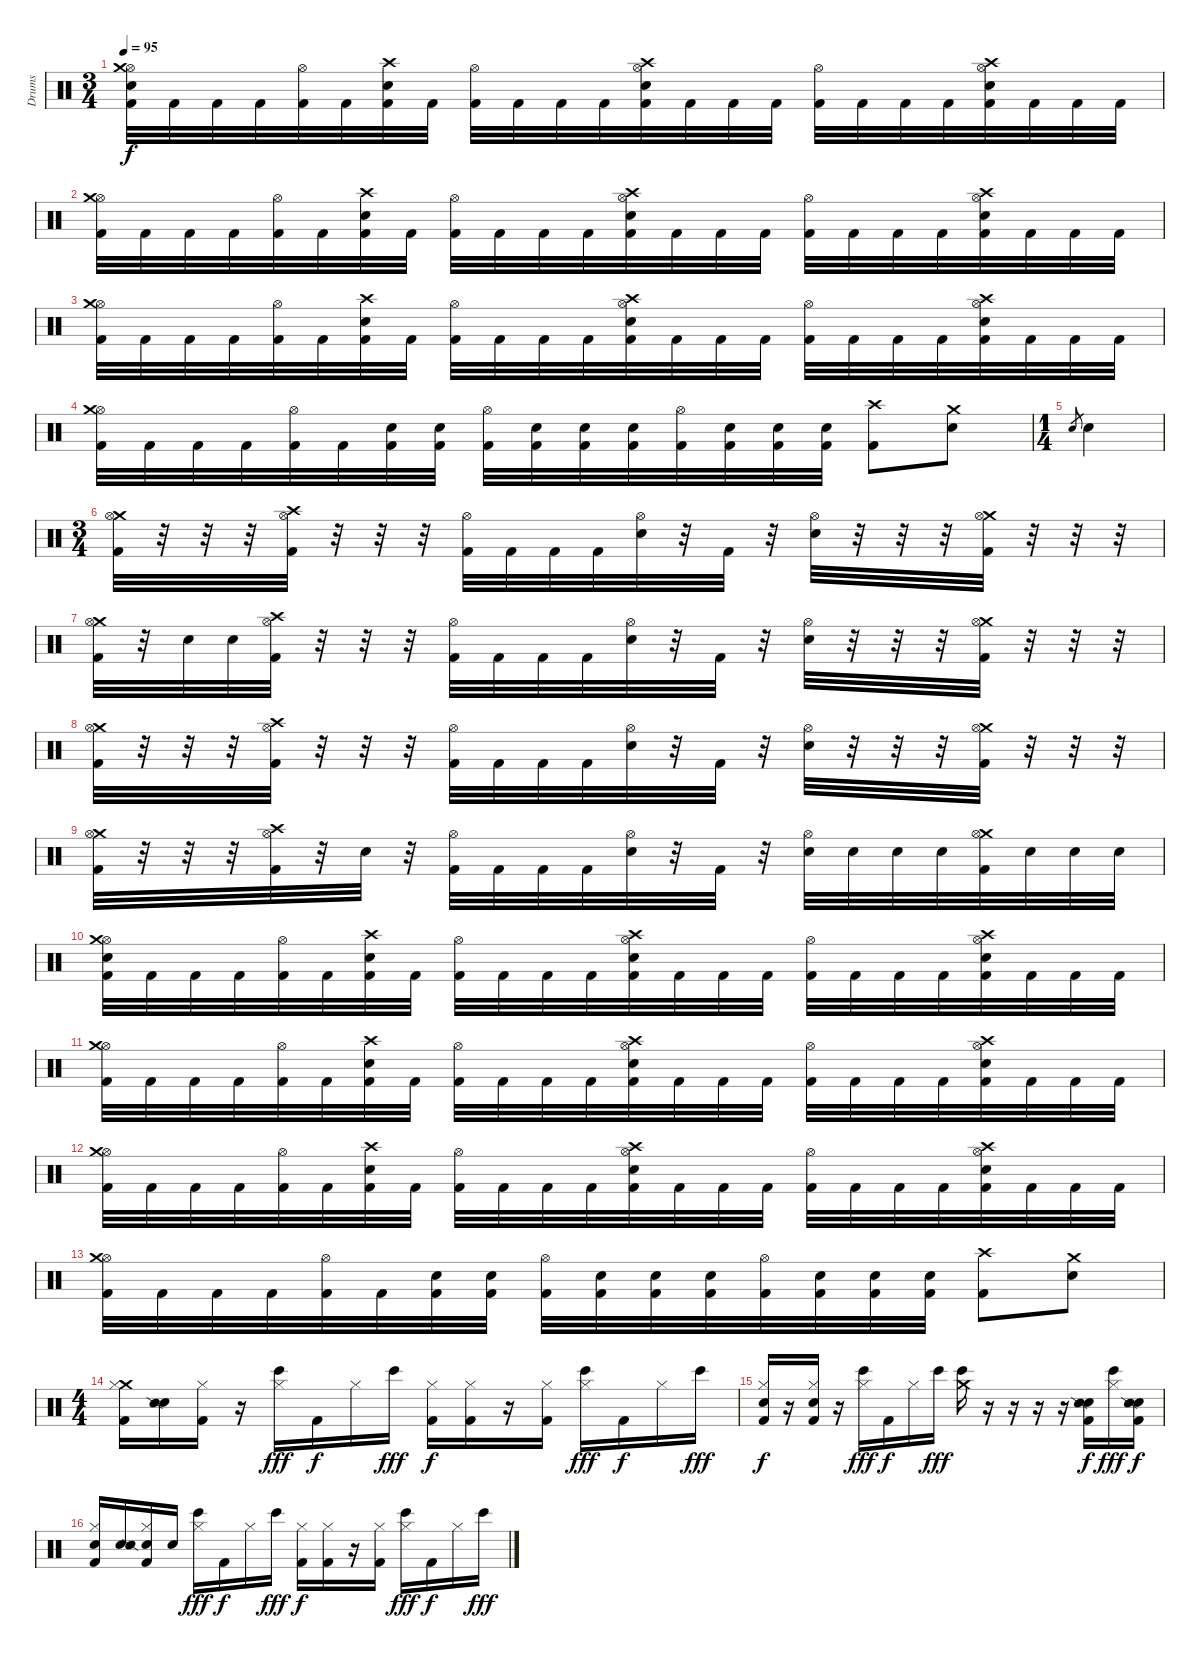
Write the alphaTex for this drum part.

\track ("Drums" "Drums") {instrument percussion}
\staff {score}
\articulation defaults
\ts (3 4)
\tempo 95
\clef neutral
\ks c
("Hi-Hat (open)" "Crash medium (hit)" "Electric Snare (hit)" "Kick (hit) 2").32{dy f} "Kick (hit) 2".32 "Kick (hit) 2".32 "Kick (hit) 2".32 ("Hi-Hat (open)" "Kick (hit) 2").32 "Kick (hit) 2".32 ("Crash high (hit)" "Electric Snare (hit)" "Kick (hit) 2").32 "Kick (hit) 2".32 ("Hi-Hat (open)" "Kick (hit) 2").32 "Kick (hit) 2".32 "Kick (hit) 2".32 "Kick (hit) 2".32 ("Hi-Hat (open)" "Electric Snare (hit)" "Crash high (hit)" "Kick (hit) 2").32 "Kick (hit) 2".32 "Kick (hit) 2".32 "Kick (hit) 2".32 ("Hi-Hat (open)" "Kick (hit) 2").32 "Kick (hit) 2".32 "Kick (hit) 2".32 "Kick (hit) 2".32 ("Hi-Hat (open)" "Crash high (hit)" "Electric Snare (hit)" "Kick (hit) 2").32 "Kick (hit) 2".32 "Kick (hit) 2".32 "Kick (hit) 2".32 |
("Hi-Hat (open)" "Crash medium (hit)" "Kick (hit) 2").32 "Kick (hit) 2".32 "Kick (hit) 2".32 "Kick (hit) 2".32 ("Hi-Hat (open)" "Kick (hit) 2").32 "Kick (hit) 2".32 ("Crash high (hit)" "Electric Snare (hit)" "Kick (hit) 2").32 "Kick (hit) 2".32 ("Hi-Hat (open)" "Kick (hit) 2").32 "Kick (hit) 2".32 "Kick (hit) 2".32 "Kick (hit) 2".32 ("Hi-Hat (open)" "Electric Snare (hit)" "Crash high (hit)" "Kick (hit) 2").32 "Kick (hit) 2".32 "Kick (hit) 2".32 "Kick (hit) 2".32 ("Hi-Hat (open)" "Kick (hit) 2").32 "Kick (hit) 2".32 "Kick (hit) 2".32 "Kick (hit) 2".32 ("Hi-Hat (open)" "Crash high (hit)" "Electric Snare (hit)" "Kick (hit) 2").32 "Kick (hit) 2".32 "Kick (hit) 2".32 "Kick (hit) 2".32 |
("Hi-Hat (open)" "Crash medium (hit)" "Kick (hit) 2").32 "Kick (hit) 2".32 "Kick (hit) 2".32 "Kick (hit) 2".32 ("Hi-Hat (open)" "Kick (hit) 2").32 "Kick (hit) 2".32 ("Crash high (hit)" "Electric Snare (hit)" "Kick (hit) 2").32 "Kick (hit) 2".32 ("Hi-Hat (open)" "Kick (hit) 2").32 "Kick (hit) 2".32 "Kick (hit) 2".32 "Kick (hit) 2".32 ("Hi-Hat (open)" "Electric Snare (hit)" "Crash high (hit)" "Kick (hit) 2").32 "Kick (hit) 2".32 "Kick (hit) 2".32 "Kick (hit) 2".32 ("Hi-Hat (open)" "Kick (hit) 2").32 "Kick (hit) 2".32 "Kick (hit) 2".32 "Kick (hit) 2".32 ("Hi-Hat (open)" "Crash high (hit)" "Electric Snare (hit)" "Kick (hit) 2").32 "Kick (hit) 2".32 "Kick (hit) 2".32 "Kick (hit) 2".32 |
("Hi-Hat (open)" "Crash medium (hit)" "Kick (hit) 2").32 "Kick (hit) 2".32 "Kick (hit) 2".32 "Kick (hit) 2".32 ("Hi-Hat (open)" "Kick (hit) 2").32 "Kick (hit) 2".32 ("Electric Snare (hit)" "Kick (hit) 2").32 ("Electric Snare (hit)" "Kick (hit) 2").32 ("Hi-Hat (open)" "Kick (hit) 2").32 ("Electric Snare (hit)" "Kick (hit) 2").32 ("Electric Snare (hit)" "Kick (hit) 2").32 ("Electric Snare (hit)" "Kick (hit) 2").32 ("Hi-Hat (open)" "Kick (hit) 2").32 ("Electric Snare (hit)" "Kick (hit) 2").32 ("Electric Snare (hit)" "Kick (hit) 2").32 ("Electric Snare (hit)" "Kick (hit) 2").32 ("Crash high (hit)" "Kick (hit) 2").8 ("Crash medium (hit)" "Electric Snare (hit)").8 |
\ts (1 4)
"Electric Snare (hit)".8{gr} "Electric Snare (hit)".4 |
\ts (3 4)
("Crash medium (hit)" "Hi-Hat (open)" "Kick (hit) 2").32 r.32 r.32 r.32 ("Crash high (hit)" "Hi-Hat (open)" "Kick (hit) 2").32 r.32 r.32 r.32 ("Hi-Hat (open)" "Kick (hit) 2").32 "Kick (hit) 2".32 "Kick (hit) 2".32 "Kick (hit) 2".32 ("Hi-Hat (open)" "Electric Snare (hit)").32 r.32 "Kick (hit) 2".32 r.32 ("Hi-Hat (open)" "Electric Snare (hit)").32 r.32 r.32 r.32 ("Crash medium (hit)" "Hi-Hat (open)" "Kick (hit) 2").32 r.32 r.32 r.32 |
("Crash medium (hit)" "Hi-Hat (open)" "Kick (hit) 2").32 r.32 "Electric Snare (hit)".32 "Electric Snare (hit)".32 ("Crash high (hit)" "Hi-Hat (open)" "Kick (hit) 2").32 r.32 r.32 r.32 ("Hi-Hat (open)" "Kick (hit) 2").32 "Kick (hit) 2".32 "Kick (hit) 2".32 "Kick (hit) 2".32 ("Hi-Hat (open)" "Electric Snare (hit)").32 r.32 "Kick (hit) 2".32 r.32 ("Hi-Hat (open)" "Electric Snare (hit)").32 r.32 r.32 r.32 ("Crash medium (hit)" "Hi-Hat (open)" "Kick (hit) 2").32 r.32 r.32 r.32 |
("Crash medium (hit)" "Hi-Hat (open)" "Kick (hit) 2").32 r.32 r.32 r.32 ("Crash high (hit)" "Hi-Hat (open)" "Kick (hit) 2").32 r.32 r.32 r.32 ("Hi-Hat (open)" "Kick (hit) 2").32 "Kick (hit) 2".32 "Kick (hit) 2".32 "Kick (hit) 2".32 ("Hi-Hat (open)" "Electric Snare (hit)").32 r.32 "Kick (hit) 2".32 r.32 ("Hi-Hat (open)" "Electric Snare (hit)").32 r.32 r.32 r.32 ("Crash medium (hit)" "Hi-Hat (open)" "Kick (hit) 2").32 r.32 r.32 r.32 |
("Crash medium (hit)" "Hi-Hat (open)" "Kick (hit) 2").32 r.32 r.32 r.32 ("Crash high (hit)" "Hi-Hat (open)" "Kick (hit) 2").32 r.32 "Electric Snare (hit)".32 r.32 ("Hi-Hat (open)" "Kick (hit) 2").32 "Kick (hit) 2".32 "Kick (hit) 2".32 "Kick (hit) 2".32 ("Hi-Hat (open)" "Electric Snare (hit)").32 r.32 "Kick (hit) 2".32 r.32 ("Hi-Hat (open)" "Electric Snare (hit)").32 "Electric Snare (hit)".32 "Electric Snare (hit)".32 "Electric Snare (hit)".32 ("Crash medium (hit)" "Hi-Hat (open)" "Kick (hit) 2").32 "Electric Snare (hit)".32 "Electric Snare (hit)".32 "Electric Snare (hit)".32 |
("Hi-Hat (open)" "Crash medium (hit)" "Electric Snare (hit)" "Kick (hit) 2").32 "Kick (hit) 2".32 "Kick (hit) 2".32 "Kick (hit) 2".32 ("Hi-Hat (open)" "Kick (hit) 2").32 "Kick (hit) 2".32 ("Crash high (hit)" "Electric Snare (hit)" "Kick (hit) 2").32 "Kick (hit) 2".32 ("Hi-Hat (open)" "Kick (hit) 2").32 "Kick (hit) 2".32 "Kick (hit) 2".32 "Kick (hit) 2".32 ("Hi-Hat (open)" "Electric Snare (hit)" "Crash high (hit)" "Kick (hit) 2").32 "Kick (hit) 2".32 "Kick (hit) 2".32 "Kick (hit) 2".32 ("Hi-Hat (open)" "Kick (hit) 2").32 "Kick (hit) 2".32 "Kick (hit) 2".32 "Kick (hit) 2".32 ("Hi-Hat (open)" "Crash high (hit)" "Electric Snare (hit)" "Kick (hit) 2").32 "Kick (hit) 2".32 "Kick (hit) 2".32 "Kick (hit) 2".32 |
("Hi-Hat (open)" "Crash medium (hit)" "Kick (hit) 2").32 "Kick (hit) 2".32 "Kick (hit) 2".32 "Kick (hit) 2".32 ("Hi-Hat (open)" "Kick (hit) 2").32 "Kick (hit) 2".32 ("Crash high (hit)" "Electric Snare (hit)" "Kick (hit) 2").32 "Kick (hit) 2".32 ("Hi-Hat (open)" "Kick (hit) 2").32 "Kick (hit) 2".32 "Kick (hit) 2".32 "Kick (hit) 2".32 ("Hi-Hat (open)" "Electric Snare (hit)" "Crash high (hit)" "Kick (hit) 2").32 "Kick (hit) 2".32 "Kick (hit) 2".32 "Kick (hit) 2".32 ("Hi-Hat (open)" "Kick (hit) 2").32 "Kick (hit) 2".32 "Kick (hit) 2".32 "Kick (hit) 2".32 ("Hi-Hat (open)" "Crash high (hit)" "Electric Snare (hit)" "Kick (hit) 2").32 "Kick (hit) 2".32 "Kick (hit) 2".32 "Kick (hit) 2".32 |
("Hi-Hat (open)" "Crash medium (hit)" "Kick (hit) 2").32 "Kick (hit) 2".32 "Kick (hit) 2".32 "Kick (hit) 2".32 ("Hi-Hat (open)" "Kick (hit) 2").32 "Kick (hit) 2".32 ("Crash high (hit)" "Electric Snare (hit)" "Kick (hit) 2").32 "Kick (hit) 2".32 ("Hi-Hat (open)" "Kick (hit) 2").32 "Kick (hit) 2".32 "Kick (hit) 2".32 "Kick (hit) 2".32 ("Hi-Hat (open)" "Electric Snare (hit)" "Crash high (hit)" "Kick (hit) 2").32 "Kick (hit) 2".32 "Kick (hit) 2".32 "Kick (hit) 2".32 ("Hi-Hat (open)" "Kick (hit) 2").32 "Kick (hit) 2".32 "Kick (hit) 2".32 "Kick (hit) 2".32 ("Hi-Hat (open)" "Crash high (hit)" "Electric Snare (hit)" "Kick (hit) 2").32 "Kick (hit) 2".32 "Kick (hit) 2".32 "Kick (hit) 2".32 |
("Hi-Hat (open)" "Crash medium (hit)" "Kick (hit) 2").32 "Kick (hit) 2".32 "Kick (hit) 2".32 "Kick (hit) 2".32 ("Hi-Hat (open)" "Kick (hit) 2").32 "Kick (hit) 2".32 ("Electric Snare (hit)" "Kick (hit) 2").32 ("Electric Snare (hit)" "Kick (hit) 2").32 ("Hi-Hat (open)" "Kick (hit) 2").32 ("Electric Snare (hit)" "Kick (hit) 2").32 ("Electric Snare (hit)" "Kick (hit) 2").32 ("Electric Snare (hit)" "Kick (hit) 2").32 ("Hi-Hat (open)" "Kick (hit) 2").32 ("Electric Snare (hit)" "Kick (hit) 2").32 ("Electric Snare (hit)" "Kick (hit) 2").32 ("Electric Snare (hit)" "Kick (hit) 2").32 ("Crash high (hit)" "Kick (hit) 2").8 ("Crash medium (hit)" "Electric Snare (hit)").8 |
\ts (4 4)
("Crash medium (hit)" "Hi-Hat (closed)" "Kick (hit) 2").16 ("Metronome (bell)" "Snare (side stick) 2").16 ("Hi-Hat (closed)" "Kick (hit) 2").16 r.16 ("Hi-Hat (closed)" "Bongo High (hit)").16{dy fff} "Kick (hit) 2".16{dy f} "Hi-Hat (closed)".16 "Bongo High (hit)".16{dy fff} ("Hi-Hat (closed)" "Kick (hit) 2").16{dy f} ("Hi-Hat (closed)" "Kick (hit) 2").16 r.16 ("Hi-Hat (closed)" "Kick (hit) 2").16 ("Hi-Hat (closed)" "Bongo High (hit)").16{dy fff} "Kick (hit) 2".16{dy f} "Hi-Hat (closed)".16 "Bongo High (hit)".16{dy fff} |
("Metronome (bell)" "Hi-Hat (closed)" "Kick (hit) 2").16{dy f} r.16 ("Metronome (bell)" "Hi-Hat (closed)" "Kick (hit) 2").16 r.16 ("Hi-Hat (closed)" "Bongo High (hit)").16{dy fff} "Kick (hit) 2".16{dy f} "Hi-Hat (closed)".16 "Bongo High (hit)".16{dy fff} ("Crash medium (hit)" "Bongo High (hit)").16 r.16 r.16 r.16 r.16 ("Metronome (bell)" "Snare (side stick) 2" "Kick (hit) 2").16{dy f} ("Hi-Hat (closed)" "Bongo High (hit)").16{dy fff} ("Metronome (bell)" "Snare (side stick) 2" "Kick (hit) 2").16{dy f} |
("Metronome (bell)" "Hi-Hat (closed)" "Kick (hit) 2").16 ("Metronome (bell)" "Snare (side stick) 2").16 ("Metronome (bell)" "Hi-Hat (closed)" "Kick (hit) 2").16 "Metronome (bell)".16 ("Hi-Hat (closed)" "Bongo High (hit)").16{dy fff} "Kick (hit) 2".16{dy f} "Hi-Hat (closed)".16 "Bongo High (hit)".16{dy fff} ("Hi-Hat (closed)" "Kick (hit) 2").16{dy f} ("Hi-Hat (closed)" "Kick (hit) 2").16 r.16 ("Hi-Hat (closed)" "Kick (hit) 2").16 ("Hi-Hat (closed)" "Bongo High (hit)").16{dy fff} "Kick (hit) 2".16{dy f} "Hi-Hat (closed)".16 "Bongo High (hit)".16{dy fff}
